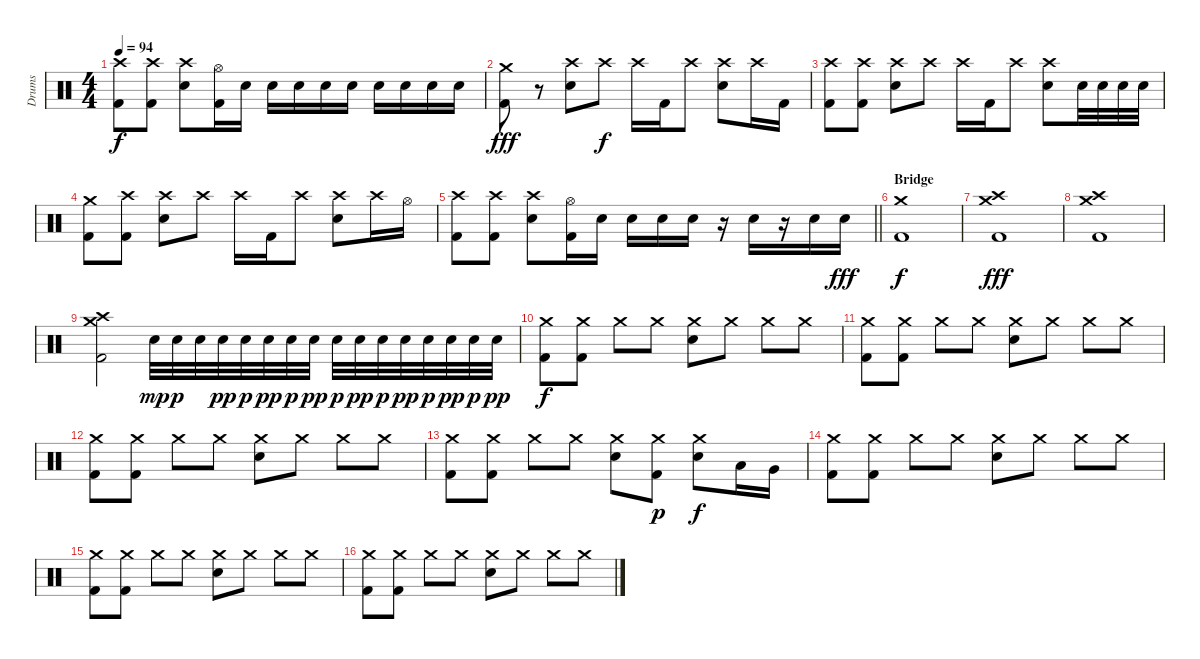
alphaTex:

\track ("Drums" "Drums") {instrument percussion}
\staff {score}
\articulation defaults
\ts (4 4)
\tempo 94
\clef neutral
\ks c
("Crash high (hit)" "Kick (hit) 2").8{dy f} ("Crash high (hit)" "Kick (hit) 2").8 ("Crash high (hit)" "Electric Snare (hit)").8 ("Hi-Hat (open)" "Kick (hit) 2").16 "Electric Snare (hit)".16 "Electric Snare (hit)".16 "Electric Snare (hit)".16 "Electric Snare (hit)".16 "Electric Snare (hit)".16 "Electric Snare (hit)".16 "Electric Snare (hit)".16 "Electric Snare (hit)".16 "Electric Snare (hit)".16 |
("Crash medium (hit)" "Kick (hit) 2").8{dy fff} r.8 ("Crash high (hit)" "Electric Snare (hit)").8 "Crash high (hit)".8{dy f} "Crash high (hit)".16 "Kick (hit) 2".16 "Crash high (hit)".8 ("Crash high (hit)" "Electric Snare (hit)").8 "Crash high (hit)".16 "Kick (hit) 2".16 |
("Crash high (hit)" "Kick (hit) 2").8 ("Crash high (hit)" "Kick (hit) 2").8 ("Crash high (hit)" "Electric Snare (hit)").8 "Crash high (hit)".8 "Crash high (hit)".16 "Kick (hit) 2".16 "Crash high (hit)".8 ("Crash high (hit)" "Electric Snare (hit)").8 "Electric Snare (hit)".32 "Electric Snare (hit)".32 "Electric Snare (hit)".32 "Electric Snare (hit)".32 |
("Crash medium (hit)" "Kick (hit) 2").8 ("Crash high (hit)" "Kick (hit) 2").8 ("Crash high (hit)" "Electric Snare (hit)").8 "Crash high (hit)".8 "Crash high (hit)".16 "Kick (hit) 2".16 "Crash high (hit)".8 ("Crash high (hit)" "Electric Snare (hit)").8 "Crash high (hit)".16 "Hi-Hat (open)".16 |
\barLineRight lightlight
("Crash high (hit)" "Kick (hit) 2").8 ("Crash high (hit)" "Kick (hit) 2").8 ("Crash high (hit)" "Electric Snare (hit)").8 ("Hi-Hat (open)" "Kick (hit) 2").16 "Electric Snare (hit)".16 "Electric Snare (hit)".16 "Electric Snare (hit)".16 "Electric Snare (hit)".16 r.16 "Electric Snare (hit)".16 r.16 "Electric Snare (hit)".16 "Electric Snare (hit)".16{dy fff} |
\section ("" "Bridge")
("Crash medium (hit)" "Kick (hit) 2").1{dy f} |
("Crash medium (hit)" "Crash high (hit)" "Kick (hit) 2").1{dy fff} |
("Crash medium (hit)" "Crash high (hit)" "Kick (hit) 2").1 |
("Crash medium (hit)" "Crash high (hit)" "Kick (hit) 2").2 "Electric Snare (hit)".32{dy mp} "Electric Snare (hit)".32{dy p} "Electric Snare (hit)".32 "Electric Snare (hit)".32{dy pp} "Electric Snare (hit)".32{dy p} "Electric Snare (hit)".32{dy pp} "Electric Snare (hit)".32{dy p} "Electric Snare (hit)".32{dy pp} "Electric Snare (hit)".32{dy p} "Electric Snare (hit)".32{dy pp} "Electric Snare (hit)".32{dy p} "Electric Snare (hit)".32{dy pp} "Electric Snare (hit)".32{dy p} "Electric Snare (hit)".32{dy pp} "Electric Snare (hit)".32{dy p} "Electric Snare (hit)".32{dy pp} |
("Crash medium (hit)" "Kick (hit) 2").8{dy f} ("Crash medium (hit)" "Kick (hit) 2").8 "Crash medium (hit)".8 "Crash medium (hit)".8 ("Crash medium (hit)" "Electric Snare (hit)").8 "Crash medium (hit)".8 "Crash medium (hit)".8 "Crash medium (hit)".8 |
("Crash medium (hit)" "Kick (hit) 2").8 ("Crash medium (hit)" "Kick (hit) 2").8 "Crash medium (hit)".8 "Crash medium (hit)".8 ("Crash medium (hit)" "Electric Snare (hit)").8 "Crash medium (hit)".8 "Crash medium (hit)".8 "Crash medium (hit)".8 |
("Crash medium (hit)" "Kick (hit) 2").8 ("Crash medium (hit)" "Kick (hit) 2").8 "Crash medium (hit)".8 "Crash medium (hit)".8 ("Crash medium (hit)" "Electric Snare (hit)").8 "Crash medium (hit)".8 "Crash medium (hit)".8 "Crash medium (hit)".8 |
("Crash medium (hit)" "Kick (hit) 2").8 ("Crash medium (hit)" "Kick (hit) 2").8 "Crash medium (hit)".8 "Crash medium (hit)".8 ("Crash medium (hit)" "Electric Snare (hit)").8 ("Crash medium (hit)" "Kick (hit) 2").8{dy p} ("Crash medium (hit)" "Electric Snare (hit)").8{dy f} "Low Tom (hit)".16 "Very Low Tom (hit)".16 |
("Crash medium (hit)" "Kick (hit) 2").8 ("Crash medium (hit)" "Kick (hit) 2").8 "Crash medium (hit)".8 "Crash medium (hit)".8 ("Crash medium (hit)" "Electric Snare (hit)").8 "Crash medium (hit)".8 "Crash medium (hit)".8 "Crash medium (hit)".8 |
("Crash medium (hit)" "Kick (hit) 2").8 ("Crash medium (hit)" "Kick (hit) 2").8 "Crash medium (hit)".8 "Crash medium (hit)".8 ("Crash medium (hit)" "Electric Snare (hit)").8 "Crash medium (hit)".8 "Crash medium (hit)".8 "Crash medium (hit)".8 |
("Crash medium (hit)" "Kick (hit) 2").8 ("Crash medium (hit)" "Kick (hit) 2").8 "Crash medium (hit)".8 "Crash medium (hit)".8 ("Crash medium (hit)" "Electric Snare (hit)").8 "Crash medium (hit)".8 "Crash medium (hit)".8 "Crash medium (hit)".8
